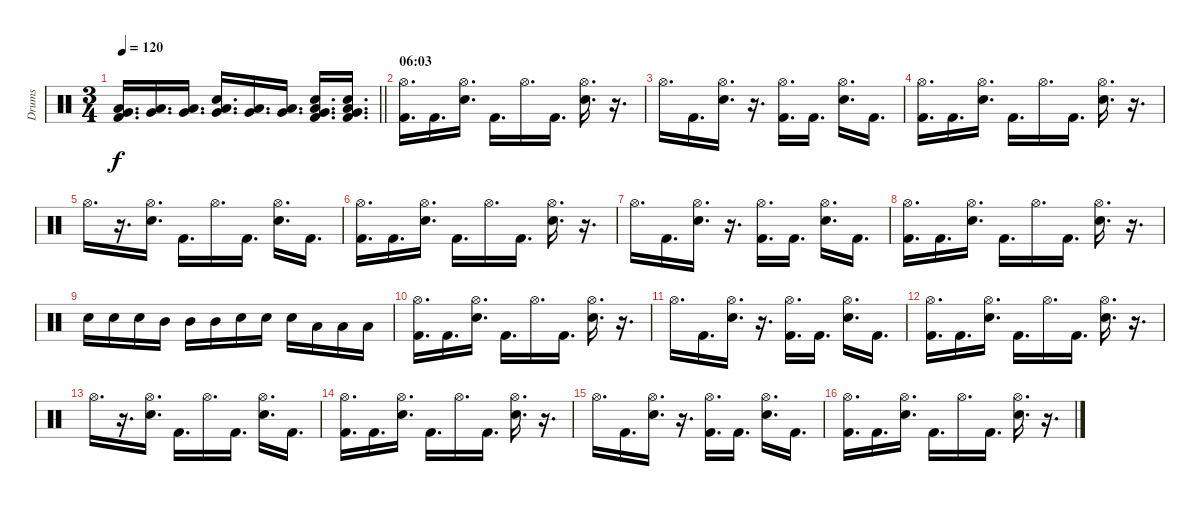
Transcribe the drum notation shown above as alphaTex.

\track ("Drums" "Drums") {instrument percussion}
\staff {score}
\articulation defaults
\ts (3 4)
\tempo 120
\clef neutral
\barLineRight lightlight
\ks c
("Very Low Tom (hit)" "Low Floor Tom (hit)" "Kick (hit) 2").16{d dy f} ("Very Low Tom (hit)" "Low Floor Tom (hit)").16{d} ("Very Low Tom (hit)" "Low Floor Tom (hit)").16{d} ("Electric Snare (hit)" "Very Low Tom (hit)" "Low Floor Tom (hit)").16{d} ("Very Low Tom (hit)" "Low Floor Tom (hit)").16{d} ("Very Low Tom (hit)" "Low Floor Tom (hit)").16{d} ("Electric Snare (hit)" "Very Low Tom (hit)" "Low Floor Tom (hit)" "Kick (hit) 2").16{d} ("Electric Snare (hit)" "Very Low Tom (hit)" "Low Floor Tom (hit)" "Kick (hit) 2").16{d} |
\section ("" "06:03")
("Hi-Hat (open)" "Kick (hit) 2").16{d} "Kick (hit) 2".16{d} ("Hi-Hat (open)" "Electric Snare (hit)").16{d} "Kick (hit) 2".16{d} "Hi-Hat (open)".16{d} "Kick (hit) 2".16{d} ("Hi-Hat (open)" "Electric Snare (hit)").16{d} r.16{d} |
"Hi-Hat (open)".16{d} "Kick (hit) 2".16{d} ("Hi-Hat (open)" "Electric Snare (hit)").16{d} r.16{d} ("Hi-Hat (open)" "Kick (hit) 2").16{d} "Kick (hit) 2".16{d} ("Hi-Hat (open)" "Electric Snare (hit)").16{d} "Kick (hit) 2".16{d} |
("Hi-Hat (open)" "Kick (hit) 2").16{d} "Kick (hit) 2".16{d} ("Hi-Hat (open)" "Electric Snare (hit)").16{d} "Kick (hit) 2".16{d} "Hi-Hat (open)".16{d} "Kick (hit) 2".16{d} ("Hi-Hat (open)" "Electric Snare (hit)").16{d} r.16{d} |
"Hi-Hat (open)".16{d} r.16{d} ("Hi-Hat (open)" "Electric Snare (hit)").16{d} "Kick (hit) 2".16{d} "Hi-Hat (open)".16{d} "Kick (hit) 2".16{d} ("Hi-Hat (open)" "Electric Snare (hit)").16{d} "Kick (hit) 2".16{d} |
("Hi-Hat (open)" "Kick (hit) 2").16{d} "Kick (hit) 2".16{d} ("Hi-Hat (open)" "Electric Snare (hit)").16{d} "Kick (hit) 2".16{d} "Hi-Hat (open)".16{d} "Kick (hit) 2".16{d} ("Hi-Hat (open)" "Electric Snare (hit)").16{d} r.16{d} |
"Hi-Hat (open)".16{d} "Kick (hit) 2".16{d} ("Hi-Hat (open)" "Electric Snare (hit)").16{d} r.16{d} ("Hi-Hat (open)" "Kick (hit) 2").16{d} "Kick (hit) 2".16{d} ("Hi-Hat (open)" "Electric Snare (hit)").16{d} "Kick (hit) 2".16{d} |
("Hi-Hat (open)" "Kick (hit) 2").16{d} "Kick (hit) 2".16{d} ("Hi-Hat (open)" "Electric Snare (hit)").16{d} "Kick (hit) 2".16{d} "Hi-Hat (open)".16{d} "Kick (hit) 2".16{d} ("Hi-Hat (open)" "Electric Snare (hit)").16{d} r.16{d} |
"Electric Snare (hit)".16 "Electric Snare (hit)".16 "Electric Snare (hit)".16 "Mid Tom (hit)".16 "Mid Tom (hit)".16 "Mid Tom (hit)".16 "Electric Snare (hit)".16 "Electric Snare (hit)".16 "Electric Snare (hit)".16 "Low Tom (hit)".16 "Low Tom (hit)".16 "Low Tom (hit)".16 |
("Hi-Hat (open)" "Kick (hit) 2").16{d} "Kick (hit) 2".16{d} ("Hi-Hat (open)" "Electric Snare (hit)").16{d} "Kick (hit) 2".16{d} "Hi-Hat (open)".16{d} "Kick (hit) 2".16{d} ("Hi-Hat (open)" "Electric Snare (hit)").16{d} r.16{d} |
"Hi-Hat (open)".16{d} "Kick (hit) 2".16{d} ("Hi-Hat (open)" "Electric Snare (hit)").16{d} r.16{d} ("Hi-Hat (open)" "Kick (hit) 2").16{d} "Kick (hit) 2".16{d} ("Hi-Hat (open)" "Electric Snare (hit)").16{d} "Kick (hit) 2".16{d} |
("Hi-Hat (open)" "Kick (hit) 2").16{d} "Kick (hit) 2".16{d} ("Hi-Hat (open)" "Electric Snare (hit)").16{d} "Kick (hit) 2".16{d} "Hi-Hat (open)".16{d} "Kick (hit) 2".16{d} ("Hi-Hat (open)" "Electric Snare (hit)").16{d} r.16{d} |
"Hi-Hat (open)".16{d} r.16{d} ("Hi-Hat (open)" "Electric Snare (hit)").16{d} "Kick (hit) 2".16{d} "Hi-Hat (open)".16{d} "Kick (hit) 2".16{d} ("Hi-Hat (open)" "Electric Snare (hit)").16{d} "Kick (hit) 2".16{d} |
("Hi-Hat (open)" "Kick (hit) 2").16{d} "Kick (hit) 2".16{d} ("Hi-Hat (open)" "Electric Snare (hit)").16{d} "Kick (hit) 2".16{d} "Hi-Hat (open)".16{d} "Kick (hit) 2".16{d} ("Hi-Hat (open)" "Electric Snare (hit)").16{d} r.16{d} |
"Hi-Hat (open)".16{d} "Kick (hit) 2".16{d} ("Hi-Hat (open)" "Electric Snare (hit)").16{d} r.16{d} ("Hi-Hat (open)" "Kick (hit) 2").16{d} "Kick (hit) 2".16{d} ("Hi-Hat (open)" "Electric Snare (hit)").16{d} "Kick (hit) 2".16{d} |
("Hi-Hat (open)" "Kick (hit) 2").16{d} "Kick (hit) 2".16{d} ("Hi-Hat (open)" "Electric Snare (hit)").16{d} "Kick (hit) 2".16{d} "Hi-Hat (open)".16{d} "Kick (hit) 2".16{d} ("Hi-Hat (open)" "Electric Snare (hit)").16{d} r.16{d}
